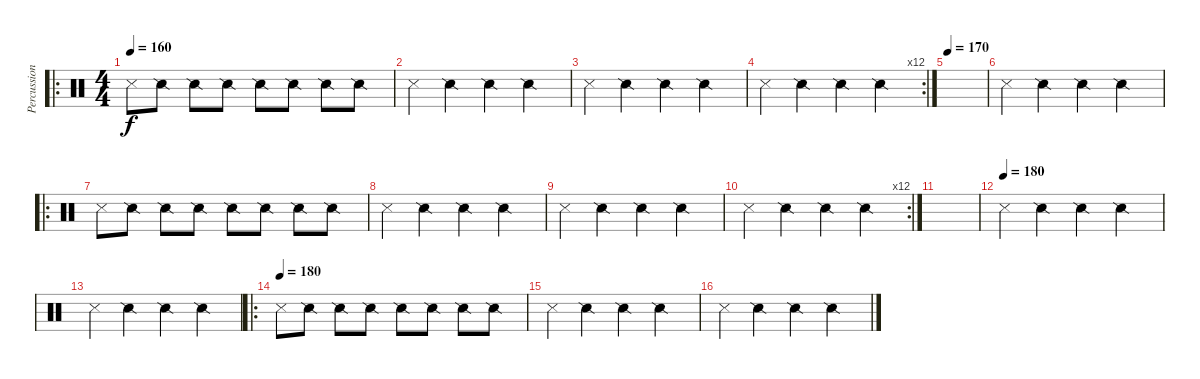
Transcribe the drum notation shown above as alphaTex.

\track ("Percussion" "Percussion") {instrument percussion}
\staff {score}
\articulation defaults
\ro
\ts (4 4)
\tempo 160
\clef neutral
\ks c "Metronome (hit)".8{dy f} "Snare (side stick) 2".8 "Snare (side stick) 2".8 "Snare (side stick) 2".8 "Snare (side stick) 2".8 "Snare (side stick) 2".8 "Snare (side stick) 2".8 "Snare (side stick) 2".8
|
"Metronome (hit)".4 "Snare (side stick) 2".4 "Snare (side stick) 2".4 "Snare (side stick) 2".4 |
"Metronome (hit)".4 "Snare (side stick) 2".4 "Snare (side stick) 2".4 "Snare (side stick) 2".4 |
\rc 12 "Metronome (hit)".4 "Snare (side stick) 2".4 "Snare (side stick) 2".4 "Snare (side stick) 2".4
|
\tempo 170
|
"Metronome (hit)".4 "Snare (side stick) 2".4 "Snare (side stick) 2".4 "Snare (side stick) 2".4 |
\ro "Metronome (hit)".8 "Snare (side stick) 2".8 "Snare (side stick) 2".8 "Snare (side stick) 2".8 "Snare (side stick) 2".8 "Snare (side stick) 2".8 "Snare (side stick) 2".8 "Snare (side stick) 2".8
|
"Metronome (hit)".4 "Snare (side stick) 2".4 "Snare (side stick) 2".4 "Snare (side stick) 2".4 |
"Metronome (hit)".4 "Snare (side stick) 2".4 "Snare (side stick) 2".4 "Snare (side stick) 2".4 |
\rc 12 "Metronome (hit)".4 "Snare (side stick) 2".4 "Snare (side stick) 2".4 "Snare (side stick) 2".4
|
|
\tempo (180)
"Metronome (hit)".4 "Snare (side stick) 2".4 "Snare (side stick) 2".4 "Snare (side stick) 2".4 |
"Metronome (hit)".4 "Snare (side stick) 2".4 "Snare (side stick) 2".4 "Snare (side stick) 2".4 |
\ro
\tempo (180)
"Metronome (hit)".8 "Snare (side stick) 2".8 "Snare (side stick) 2".8 "Snare (side stick) 2".8 "Snare (side stick) 2".8 "Snare (side stick) 2".8 "Snare (side stick) 2".8 "Snare (side stick) 2".8 |
"Metronome (hit)".4 "Snare (side stick) 2".4 "Snare (side stick) 2".4 "Snare (side stick) 2".4 |
"Metronome (hit)".4 "Snare (side stick) 2".4 "Snare (side stick) 2".4 "Snare (side stick) 2".4
